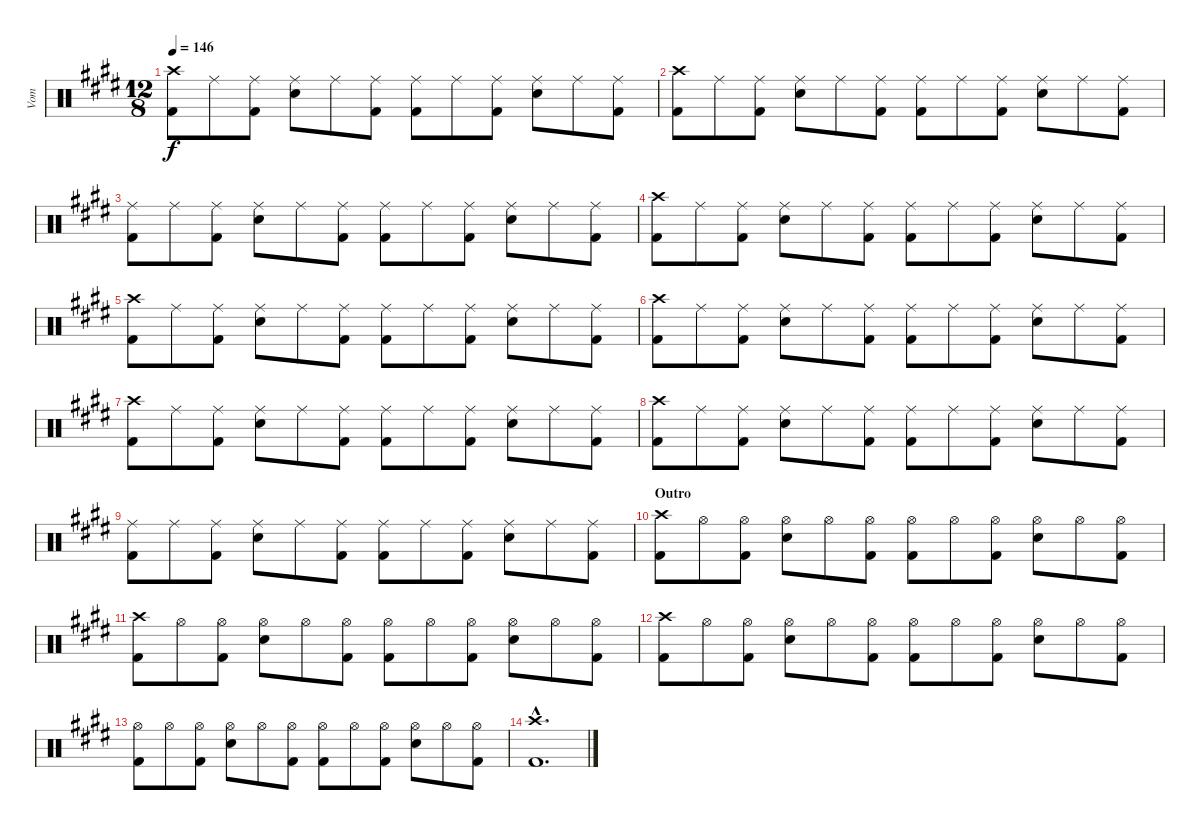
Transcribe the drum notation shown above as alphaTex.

\track ("Vom" "Vom") {instrument percussion}
\staff {score}
\articulation defaults
\ts (12 8)
\tempo 146
\clef neutral
\ks e
("Crash high (hit)" "Kick (hit) 2").8{dy f} "Ride (middle)".8 ("Ride (middle)" "Kick (hit) 2").8 ("Ride (middle)" "Snare (hit) 2").8 "Ride (middle)".8 ("Ride (middle)" "Kick (hit) 2").8 ("Ride (middle)" "Kick (hit) 2").8 "Ride (middle)".8 ("Ride (middle)" "Kick (hit) 2").8 ("Ride (middle)" "Snare (hit) 2").8 "Ride (middle)".8 ("Ride (middle)" "Kick (hit) 2").8 |
("Crash high (hit)" "Kick (hit) 2").8 "Ride (middle)".8 ("Ride (middle)" "Kick (hit) 2").8 ("Ride (middle)" "Snare (hit) 2").8 "Ride (middle)".8 ("Ride (middle)" "Kick (hit) 2").8 ("Ride (middle)" "Kick (hit) 2").8 "Ride (middle)".8 ("Ride (middle)" "Kick (hit) 2").8 ("Ride (middle)" "Snare (hit) 2").8 "Ride (middle)".8 ("Ride (middle)" "Kick (hit) 2").8 |
("Ride (middle)" "Kick (hit) 2").8 "Ride (middle)".8 ("Ride (middle)" "Kick (hit) 2").8 ("Ride (middle)" "Snare (hit) 2").8 "Ride (middle)".8 ("Ride (middle)" "Kick (hit) 2").8 ("Ride (middle)" "Kick (hit) 2").8 "Ride (middle)".8 ("Ride (middle)" "Kick (hit) 2").8 ("Ride (middle)" "Snare (hit) 2").8 "Ride (middle)".8 ("Ride (middle)" "Kick (hit) 2").8 |
("Crash high (hit)" "Kick (hit) 2").8 "Ride (middle)".8 ("Ride (middle)" "Kick (hit) 2").8 ("Ride (middle)" "Snare (hit) 2").8 "Ride (middle)".8 ("Ride (middle)" "Kick (hit) 2").8 ("Ride (middle)" "Kick (hit) 2").8 "Ride (middle)".8 ("Ride (middle)" "Kick (hit) 2").8 ("Ride (middle)" "Snare (hit) 2").8 "Ride (middle)".8 ("Ride (middle)" "Kick (hit) 2").8 |
("Crash high (hit)" "Kick (hit) 2").8 "Ride (middle)".8 ("Ride (middle)" "Kick (hit) 2").8 ("Ride (middle)" "Snare (hit) 2").8 "Ride (middle)".8 ("Ride (middle)" "Kick (hit) 2").8 ("Ride (middle)" "Kick (hit) 2").8 "Ride (middle)".8 ("Ride (middle)" "Kick (hit) 2").8 ("Ride (middle)" "Snare (hit) 2").8 "Ride (middle)".8 ("Ride (middle)" "Kick (hit) 2").8 |
("Crash high (hit)" "Kick (hit) 2").8 "Ride (middle)".8 ("Ride (middle)" "Kick (hit) 2").8 ("Ride (middle)" "Snare (hit) 2").8 "Ride (middle)".8 ("Ride (middle)" "Kick (hit) 2").8 ("Ride (middle)" "Kick (hit) 2").8 "Ride (middle)".8 ("Ride (middle)" "Kick (hit) 2").8 ("Ride (middle)" "Snare (hit) 2").8 "Ride (middle)".8 ("Ride (middle)" "Kick (hit) 2").8 |
("Crash high (hit)" "Kick (hit) 2").8 "Ride (middle)".8 ("Ride (middle)" "Kick (hit) 2").8 ("Ride (middle)" "Snare (hit) 2").8 "Ride (middle)".8 ("Ride (middle)" "Kick (hit) 2").8 ("Ride (middle)" "Kick (hit) 2").8 "Ride (middle)".8 ("Ride (middle)" "Kick (hit) 2").8 ("Ride (middle)" "Snare (hit) 2").8 "Ride (middle)".8 ("Ride (middle)" "Kick (hit) 2").8 |
("Crash high (hit)" "Kick (hit) 2").8 "Ride (middle)".8 ("Ride (middle)" "Kick (hit) 2").8 ("Ride (middle)" "Snare (hit) 2").8 "Ride (middle)".8 ("Ride (middle)" "Kick (hit) 2").8 ("Ride (middle)" "Kick (hit) 2").8 "Ride (middle)".8 ("Ride (middle)" "Kick (hit) 2").8 ("Ride (middle)" "Snare (hit) 2").8 "Ride (middle)".8 ("Ride (middle)" "Kick (hit) 2").8 |
("Ride (middle)" "Kick (hit) 2").8 "Ride (middle)".8 ("Ride (middle)" "Kick (hit) 2").8 ("Ride (middle)" "Snare (hit) 2").8 "Ride (middle)".8 ("Ride (middle)" "Kick (hit) 2").8 ("Ride (middle)" "Kick (hit) 2").8 "Ride (middle)".8 ("Ride (middle)" "Kick (hit) 2").8 ("Ride (middle)" "Snare (hit) 2").8 "Ride (middle)".8 ("Ride (middle)" "Kick (hit) 2").8 |
\section ("" "Outro")
("Crash high (hit)" "Kick (hit) 2").8 "Hi-Hat (open)".8 ("Hi-Hat (open)" "Kick (hit) 2").8 ("Hi-Hat (open)" "Snare (hit) 2").8 "Hi-Hat (open)".8 ("Hi-Hat (open)" "Kick (hit) 2").8 ("Hi-Hat (open)" "Kick (hit) 2").8 "Hi-Hat (open)".8 ("Hi-Hat (open)" "Kick (hit) 2").8 ("Hi-Hat (open)" "Snare (hit) 2").8 "Hi-Hat (open)".8 ("Hi-Hat (open)" "Kick (hit) 2").8 |
("Crash high (hit)" "Kick (hit) 2").8 "Hi-Hat (open)".8 ("Hi-Hat (open)" "Kick (hit) 2").8 ("Hi-Hat (open)" "Snare (hit) 2").8 "Hi-Hat (open)".8 ("Hi-Hat (open)" "Kick (hit) 2").8 ("Hi-Hat (open)" "Kick (hit) 2").8 "Hi-Hat (open)".8 ("Hi-Hat (open)" "Kick (hit) 2").8 ("Hi-Hat (open)" "Snare (hit) 2").8 "Hi-Hat (open)".8 ("Hi-Hat (open)" "Kick (hit) 2").8 |
("Crash high (hit)" "Kick (hit) 2").8 "Hi-Hat (open)".8 ("Hi-Hat (open)" "Kick (hit) 2").8 ("Hi-Hat (open)" "Snare (hit) 2").8 "Hi-Hat (open)".8 ("Hi-Hat (open)" "Kick (hit) 2").8 ("Hi-Hat (open)" "Kick (hit) 2").8 "Hi-Hat (open)".8 ("Hi-Hat (open)" "Kick (hit) 2").8 ("Hi-Hat (open)" "Snare (hit) 2").8 "Hi-Hat (open)".8 ("Hi-Hat (open)" "Kick (hit) 2").8 |
("Hi-Hat (open)" "Kick (hit) 2").8 "Hi-Hat (open)".8 ("Hi-Hat (open)" "Kick (hit) 2").8 ("Hi-Hat (open)" "Snare (hit) 2").8 "Hi-Hat (open)".8 ("Hi-Hat (open)" "Kick (hit) 2").8 ("Hi-Hat (open)" "Kick (hit) 2").8 "Hi-Hat (open)".8 ("Hi-Hat (open)" "Kick (hit) 2").8 ("Hi-Hat (open)" "Snare (hit) 2").8 "Hi-Hat (open)".8 ("Hi-Hat (open)" "Kick (hit) 2").8 |
("Crash high (hit)"{hac} "Kick (hit) 2"{hac}).1{d}
